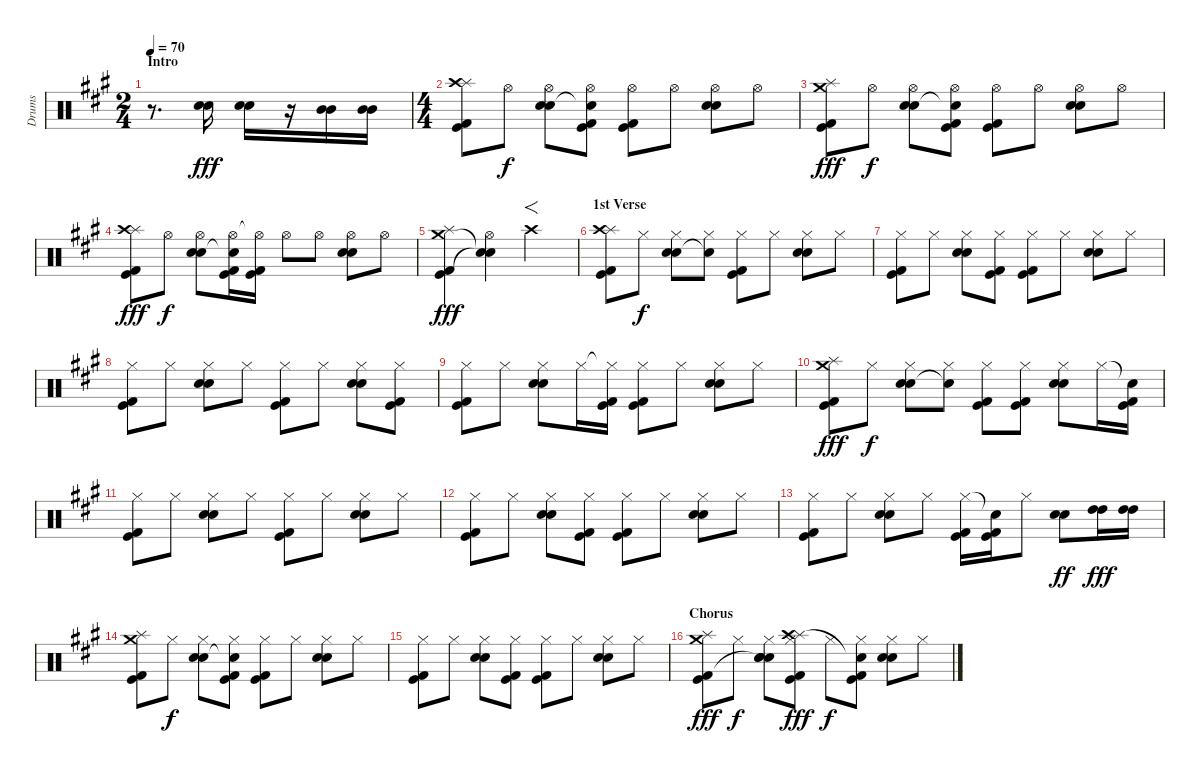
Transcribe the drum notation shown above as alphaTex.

\track ("Drums" "Drums") {instrument percussion}
\staff {score}
\articulation defaults
\ts (2 4)
\section ("" "Intro")
\tempo 70
\clef neutral
\ks a
r.8{d dy fff} ("Electric Snare (hit)" "Snare (hit) 2").16 ("Electric Snare (hit)" "Snare (hit) 2").16 r.16 ("Mid Tom (hit)" "Mid Tom (hit)").16 ("Mid Tom (hit)" "Mid Tom (hit)").16 |
\ts (4 4)
("Splash (hit)" "Crash high (hit)" "Kick (hit)" "Kick (hit) 2").8 "Hi-Hat (open)".8{dy f} ("Hi-Hat (open)" "Electric Snare (hit)" "Snare (hit) 2").8 ("Hi-Hat (open)" "Snare (hit)"{t} "Kick (hit)" "Kick (hit) 2").8 ("Hi-Hat (open)" "Kick (hit)" "Kick (hit) 2").8 "Hi-Hat (open)".8 ("Hi-Hat (open)" "Electric Snare (hit)" "Snare (hit) 2").8 "Hi-Hat (open)".8 |
("Splash (hit)" "Crash medium (hit)" "Kick (hit)" "Kick (hit) 2").8{dy fff} "Hi-Hat (open)".8{dy f} ("Hi-Hat (open)" "Electric Snare (hit)" "Snare (hit) 2").8 ("Hi-Hat (open)" "Snare (hit)"{t} "Kick (hit)" "Kick (hit) 2").8 ("Hi-Hat (open)" "Kick (hit)" "Kick (hit) 2").8 "Hi-Hat (open)".8 ("Hi-Hat (open)" "Electric Snare (hit)" "Snare (hit) 2").8 "Hi-Hat (open)".8 |
("Splash (hit)" "Crash high (hit)" "Kick (hit)" "Kick (hit) 2").8{dy fff} "Hi-Hat (open)".8{dy f} ("Hi-Hat (open)" "Electric Snare (hit)" "Snare (hit) 2").8 ("Hi-Hat (open)" "Snare (hit)"{t} "Kick (hit)" "Kick (hit) 2").16 ("Hi-Hat (open)"{t} "Kick (hit)" "Kick (hit) 2").16 "Hi-Hat (open)".8 "Hi-Hat (open)".8 ("Hi-Hat (open)" "Electric Snare (hit)" "Snare (hit) 2").8 "Hi-Hat (open)".8 |
("Splash (hit)" "Crash medium (hit)" "Kick (hit)" "Kick (hit) 2").4{dy fff} ("Hi-Hat (open)" "Snare (hit)"{t} "Snare (hit)"{t}).4 "Crash high (hit)"{tr (49 32)}.2{f} |
\section ("" "1st Verse")
("Splash (hit)" "Crash high (hit)" "Kick (hit)" "Kick (hit) 2").8 "Hi-Hat (closed)".8{dy f} ("Hi-Hat (closed)" "Electric Snare (hit)" "Snare (hit) 2").8 ("Hi-Hat (closed)" "Snare (hit)"{t}).8 ("Hi-Hat (closed)" "Kick (hit)" "Kick (hit) 2").8 "Hi-Hat (closed)".8 ("Hi-Hat (closed)" "Electric Snare (hit)" "Snare (hit) 2").8 "Hi-Hat (closed)".8 |
("Hi-Hat (closed)" "Kick (hit)" "Kick (hit) 2").8 "Hi-Hat (closed)".8 ("Hi-Hat (closed)" "Electric Snare (hit)" "Snare (hit) 2").8 ("Hi-Hat (closed)" "Kick (hit)" "Kick (hit) 2").8 ("Hi-Hat (closed)" "Kick (hit)" "Kick (hit) 2").8 "Hi-Hat (closed)".8 ("Hi-Hat (closed)" "Electric Snare (hit)" "Snare (hit) 2").8 "Hi-Hat (closed)".8 |
("Hi-Hat (closed)" "Kick (hit)" "Kick (hit) 2").8 "Hi-Hat (closed)".8 ("Hi-Hat (closed)" "Electric Snare (hit)" "Snare (hit) 2").8 "Hi-Hat (closed)".8 ("Hi-Hat (closed)" "Kick (hit)" "Kick (hit) 2").8 "Hi-Hat (closed)".8 ("Hi-Hat (closed)" "Electric Snare (hit)" "Snare (hit) 2").8 ("Hi-Hat (closed)" "Kick (hit)" "Kick (hit) 2").8 |
("Hi-Hat (closed)" "Kick (hit)" "Kick (hit) 2").8 "Hi-Hat (closed)".8 ("Hi-Hat (closed)" "Electric Snare (hit)" "Snare (hit) 2").8 "Hi-Hat (closed)".16 ("Hi-Hat (closed)"{t} "Kick (hit)" "Kick (hit) 2").16 ("Hi-Hat (closed)" "Kick (hit)" "Kick (hit) 2").8 "Hi-Hat (closed)".8 ("Hi-Hat (closed)" "Electric Snare (hit)" "Snare (hit) 2").8 "Hi-Hat (closed)".8 |
("Splash (hit)" "Crash medium (hit)" "Kick (hit)" "Kick (hit) 2").8{dy fff} "Hi-Hat (closed)".8{dy f} ("Hi-Hat (closed)" "Electric Snare (hit)" "Snare (hit) 2").8 ("Hi-Hat (closed)" "Snare (hit)"{t}).8 ("Hi-Hat (closed)" "Kick (hit)" "Kick (hit) 2").8 ("Hi-Hat (closed)" "Kick (hit)" "Kick (hit) 2").8 ("Hi-Hat (closed)" "Electric Snare (hit)" "Snare (hit) 2").8 "Hi-Hat (closed)".16 ("Snare (hit)"{t} "Kick (hit)" "Kick (hit) 2").16 |
("Hi-Hat (closed)" "Kick (hit)" "Kick (hit) 2").8 "Hi-Hat (closed)".8 ("Hi-Hat (closed)" "Electric Snare (hit)" "Snare (hit) 2").8 "Hi-Hat (closed)".8 ("Hi-Hat (closed)" "Kick (hit)" "Kick (hit) 2").8 "Hi-Hat (closed)".8 ("Hi-Hat (closed)" "Electric Snare (hit)" "Snare (hit) 2").8 "Hi-Hat (closed)".8 |
("Hi-Hat (closed)" "Kick (hit)" "Kick (hit) 2").8 "Hi-Hat (closed)".8 ("Hi-Hat (closed)" "Electric Snare (hit)" "Snare (hit) 2").8 ("Hi-Hat (closed)" "Kick (hit)" "Kick (hit) 2").8 ("Hi-Hat (closed)" "Kick (hit)" "Kick (hit) 2").8 "Hi-Hat (closed)".8 ("Hi-Hat (closed)" "Electric Snare (hit)" "Snare (hit) 2").8 "Hi-Hat (closed)".8 |
("Hi-Hat (closed)" "Kick (hit)" "Kick (hit) 2").8 "Hi-Hat (closed)".8 ("Hi-Hat (closed)" "Electric Snare (hit)" "Snare (hit) 2").8 "Hi-Hat (closed)".8 ("Hi-Hat (closed)" "Kick (hit)" "Kick (hit) 2").16 ("Snare (hit)"{t} "Kick (hit)" "Kick (hit) 2").16 "Hi-Hat (closed)".8 ("Electric Snare (hit)" "Snare (hit) 2").8{dy ff} ("High Tom (hit)" "High Tom (hit)").16{dy fff} ("High Tom (hit)" "High Tom (hit)").16 |
("Splash (hit)" "Crash medium (hit)" "Kick (hit)" "Kick (hit) 2").8 "Hi-Hat (closed)".8{dy f} ("Hi-Hat (closed)" "Electric Snare (hit)" "Snare (hit) 2").8 ("Hi-Hat (closed)" "Snare (hit)"{t} "Kick (hit)" "Kick (hit) 2").8 ("Hi-Hat (closed)" "Kick (hit)" "Kick (hit) 2").8 "Hi-Hat (closed)".8 ("Hi-Hat (closed)" "Electric Snare (hit)" "Snare (hit) 2").8 "Hi-Hat (closed)".8 |
("Hi-Hat (closed)" "Kick (hit)" "Kick (hit) 2").8 "Hi-Hat (closed)".8 ("Hi-Hat (closed)" "Electric Snare (hit)" "Snare (hit) 2").8 ("Hi-Hat (closed)" "Kick (hit)" "Kick (hit) 2").8 ("Hi-Hat (closed)" "Kick (hit)" "Kick (hit) 2").8 "Hi-Hat (closed)".8 ("Hi-Hat (closed)" "Electric Snare (hit)" "Snare (hit) 2").8 "Hi-Hat (closed)".8 |
\section ("" "Chorus")
("Splash (hit)" "Crash medium (hit)" "Kick (hit)" "Kick (hit) 2").8{dy fff} "Hi-Hat (closed)".8{dy f} ("Hi-Hat (closed)" "Electric Snare (hit)" "Snare (hit) 2" "Snare (hit)"{t}).8 ("Hi-Hat (closed)" "Splash (hit)" "Crash high (hit)" "Kick (hit)" "Kick (hit) 2").8{dy fff} "Hi-Hat (closed)".8{dy f} ("Hi-Hat (closed)" "Snare (hit)"{t} "Kick (hit)" "Kick (hit) 2").8 ("Hi-Hat (closed)" "Electric Snare (hit)" "Snare (hit) 2").8 "Hi-Hat (closed)".8
